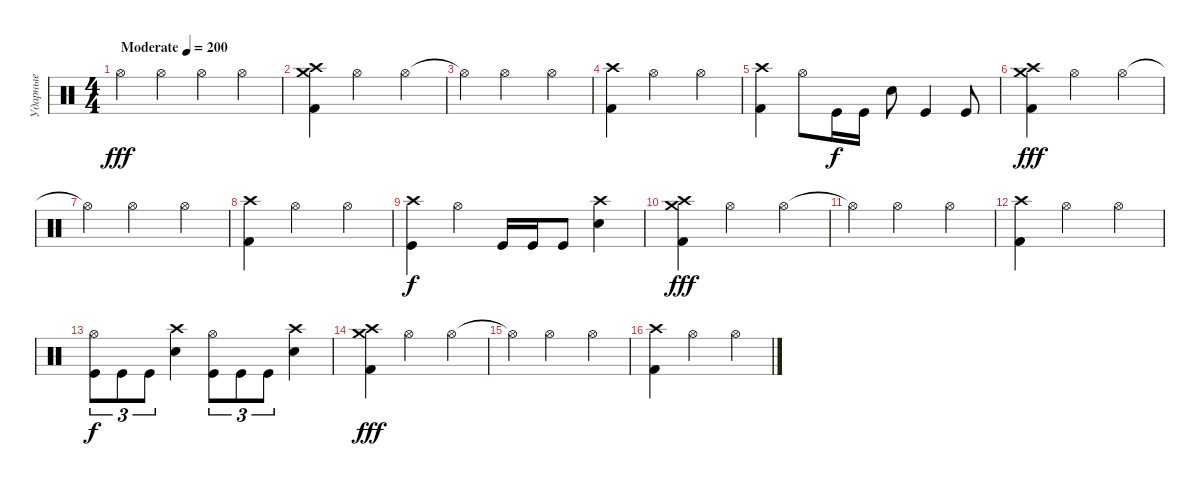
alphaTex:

\track ("Ударные" "Ударные") {instrument percussion}
\staff {score}
\articulation defaults
\ts (4 4)
\tempo (200 "Moderate")
\clef neutral
\ks c "Hi-Hat (open)".4{dy fff} "Hi-Hat (open)".4 "Hi-Hat (open)".4 "Hi-Hat (open)".4
|
("Crash high (hit)" "Crash medium (hit)" "Kick (hit) 2").4 "Hi-Hat (open)".2 "Hi-Hat (open)".4 |
"Hi-Hat (open)"{t}.4 "Hi-Hat (open)".2 "Hi-Hat (open)".4 |
("Crash high (hit)" "Kick (hit) 2").4 "Hi-Hat (open)".2 "Hi-Hat (open)".4 |
("Crash high (hit)" "Kick (hit) 2").4 "Hi-Hat (open)".8 "Kick (hit)".16{dy f} "Kick (hit)".16 "Snare (hit) 2".8 "Kick (hit)".4 "Kick (hit)".8 |
("Crash high (hit)" "Crash medium (hit)" "Kick (hit) 2").4{dy fff} "Hi-Hat (open)".2 "Hi-Hat (open)".4 |
"Hi-Hat (open)"{t}.4 "Hi-Hat (open)".2 "Hi-Hat (open)".4 |
("Crash high (hit)" "Kick (hit) 2").4 "Hi-Hat (open)".2 "Hi-Hat (open)".4 |
("Kick (hit)" "Crash high (hit)").4{dy f} "Hi-Hat (open)".4 "Kick (hit)".16 "Kick (hit)".16 "Kick (hit)".8 ("Snare (hit) 2" "Crash high (hit)").4 |
("Crash high (hit)" "Crash medium (hit)" "Kick (hit) 2").4{dy fff} "Hi-Hat (open)".2 "Hi-Hat (open)".4 |
"Hi-Hat (open)"{t}.4 "Hi-Hat (open)".2 "Hi-Hat (open)".4 |
("Crash high (hit)" "Kick (hit) 2").4 "Hi-Hat (open)".2 "Hi-Hat (open)".4 |
("Kick (hit)" "Hi-Hat (open)").8{tu (3 2) dy f} "Kick (hit)".8{tu (3 2)} "Kick (hit)".8{tu (3 2)} ("Snare (hit) 2" "Crash high (hit)").4 ("Kick (hit)" "Hi-Hat (open)").8{tu (3 2)} "Kick (hit)".8{tu (3 2)} "Kick (hit)".8{tu (3 2)} ("Snare (hit) 2" "Crash high (hit)").4 |
("Crash high (hit)" "Crash medium (hit)" "Kick (hit) 2").4{dy fff} "Hi-Hat (open)".2 "Hi-Hat (open)".4 |
"Hi-Hat (open)"{t}.4 "Hi-Hat (open)".2 "Hi-Hat (open)".4 |
("Crash high (hit)" "Kick (hit) 2").4 "Hi-Hat (open)".2 "Hi-Hat (open)".4
